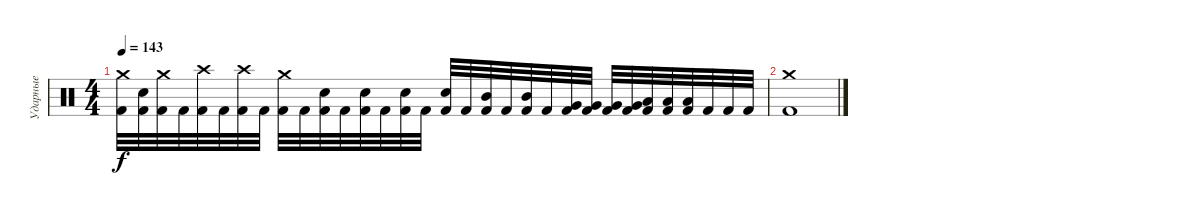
\track ("Ударные" "Ударные") {instrument percussion}
\staff {score}
\articulation defaults
\ts (4 4)
\tempo 143
\clef neutral
\ks c
("Kick (hit) 2" "Crash medium (hit)").32{dy f} ("Kick (hit) 2" "Snare (hit)").32 ("Kick (hit) 2" "Crash medium (hit)").32 "Kick (hit) 2".32 ("Kick (hit) 2" "Crash high (hit)").32 "Kick (hit) 2".32 ("Kick (hit) 2" "Crash high (hit)").32 "Kick (hit) 2".32 ("Kick (hit) 2" "Crash medium (hit)").32 "Kick (hit) 2".32 ("Kick (hit) 2" "Snare (hit) 2").32 "Kick (hit) 2".32 ("Kick (hit) 2" "Snare (hit) 2").32 "Kick (hit) 2".32 ("Kick (hit) 2" "Snare (hit) 2").32 "Kick (hit) 2".32 ("Kick (hit) 2" "Snare (hit) 2").32 "Kick (hit) 2".32 ("Kick (hit) 2" "Mid Tom (hit)").32 "Kick (hit) 2".32 ("Kick (hit) 2" "Mid Tom (hit)").32 "Kick (hit) 2".32 ("Kick (hit) 2" "Very Low Tom (hit)").32 ("Kick (hit) 2" "Very Low Tom (hit)").32 ("Kick (hit) 2" "Very Low Tom (hit)").32 ("Kick (hit) 2" "Very Low Tom (hit)").32 ("Kick (hit) 2" "Low Floor Tom (hit)").32 ("Kick (hit) 2" "Low Floor Tom (hit)").32 ("Kick (hit) 2" "Low Floor Tom (hit)").32 "Kick (hit) 2".32 "Kick (hit) 2".32 "Kick (hit) 2".32 |
("Crash medium (hit)" "Kick (hit) 2").1
